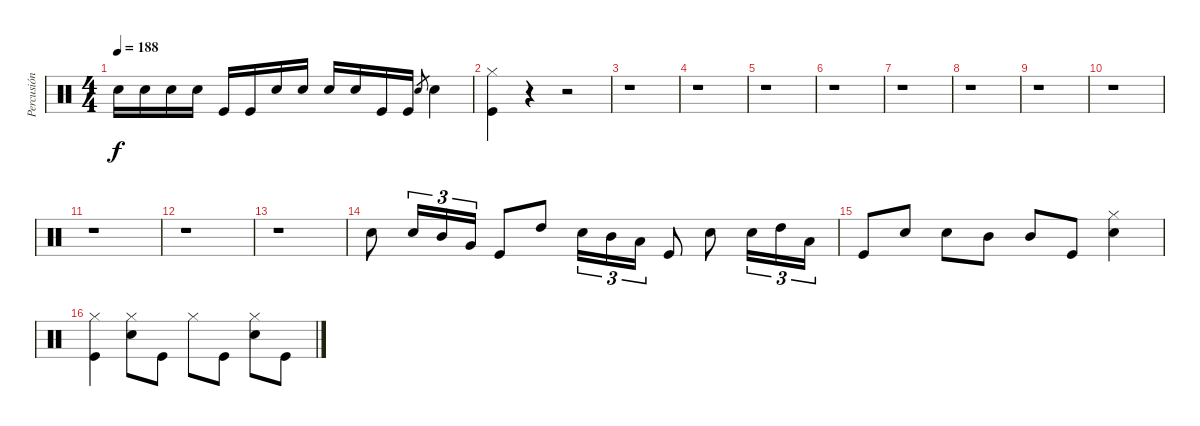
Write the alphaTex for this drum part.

\track ("Percusión" "Percusión") {instrument percussion}
\staff {score}
\articulation defaults
\ts (4 4)
\tempo 188
\clef neutral
\ks c "Snare (hit) 2".16{dy f} "Snare (hit) 2".16 "Snare (hit) 2".16 "Snare (hit) 2".16 "Kick (hit)".16 "Kick (hit)".16 "Snare (hit) 2".16 "Snare (hit) 2".16 "Snare (hit) 2".16 "Snare (hit) 2".16 "Kick (hit)".16 "Kick (hit)".16 "Snare (hit) 2".8{gr} "Snare (hit) 2".4
|
("Hi-Hat (closed)" "Kick (hit)").4 r.4 r.2 |
r.1 |
r.1 |
r.1 |
r.1 |
r.1 |
r.1 |
r.1 |
r.1 |
r.1 |
r.1 |
r.1 |
"Snare (hit) 2".8 "Snare (hit) 2".16{tu (3 2)} "Mid Tom (hit)".16{tu (3 2)} "Very Low Tom (hit)".16{tu (3 2)} "Kick (hit)".8 "High Tom (hit)".8 "Snare (hit) 2".16{tu (3 2)} "Mid Tom (hit)".16{tu (3 2)} "Low Tom (hit)".16{tu (3 2)} "Kick (hit)".8 "Snare (hit) 2".8 "Snare (hit) 2".16{tu (3 2)} "High Tom (hit)".16{tu (3 2)} "Low Tom (hit)".16{tu (3 2)} |
"Kick (hit)".8 "Snare (hit) 2".8 "Snare (hit) 2".8 "Mid Tom (hit)".8 "Mid Tom (hit)".8 "Kick (hit)".8 ("Hi-Hat (closed)" "Snare (hit) 2").4 |
("Hi-Hat (closed)" "Kick (hit)").4 ("Hi-Hat (closed)" "Snare (hit) 2").8 "Kick (hit)".8 "Hi-Hat (closed)".8 "Kick (hit)".8 ("Hi-Hat (closed)" "Snare (hit) 2").8 "Kick (hit)".8
